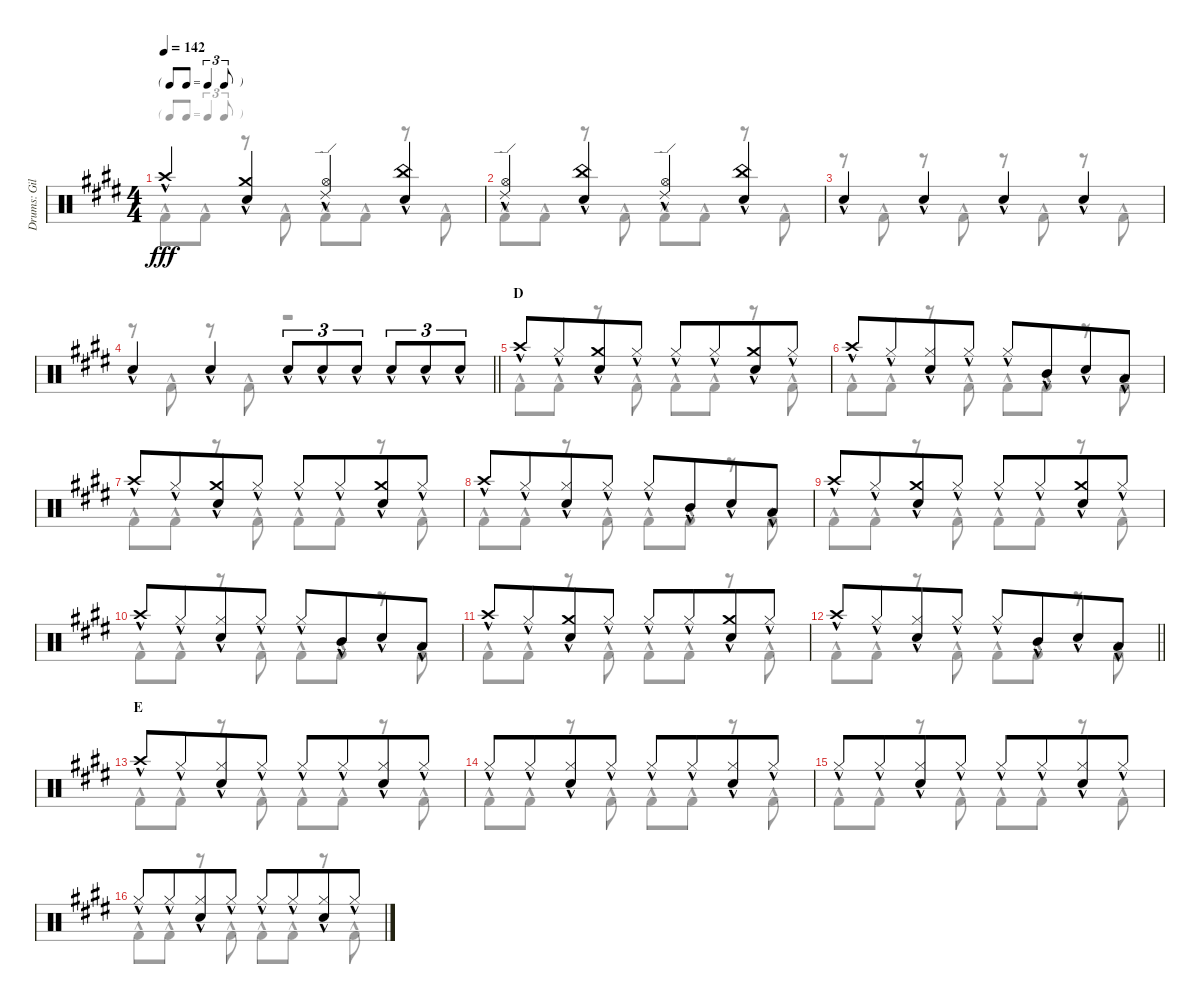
\track ("Drums: Gil" "Drums: Gil") {instrument percussion}
\staff {score}
\articulation defaults
\voice
\ts (4 4)
\tf triplet8th
\tempo 142
\clef neutral
\ks e "Crash high (hit)"{hac}.4{dy fff}
("Crash medium (hit)"{hac} "Snare (hit) 2"{hac}).4 ("Ride (edge) 2"{hac} "Hi-Hat (open)"{hac}).4 ("China (hit)"{hac} "Snare (hit) 2"{hac}).4 |
("Ride (edge) 2"{hac} "Hi-Hat (open)"{hac}).4 ("China (hit)"{hac} "Snare (hit) 2"{hac}).4 ("Ride (edge) 2"{hac} "Hi-Hat (open)"{hac}).4 ("China (hit)"{hac} "Snare (hit) 2"{hac}).4 |
"Snare (hit) 2"{hac}.4 "Snare (hit) 2"{hac}.4 "Snare (hit) 2"{hac}.4 "Snare (hit) 2"{hac}.4 |
\barLineRight lightlight "Snare (hit) 2"{hac}.4 "Snare (hit) 2"{hac}.4 "Snare (hit) 2"{hac}.8{tu (3 2)} "Snare (hit) 2"{hac}.8{tu (3 2)} "Snare (hit) 2"{hac}.8{tu (3 2)} "Snare (hit) 2"{hac}.8{tu (3 2)} "Snare (hit) 2"{hac}.8{tu (3 2)} "Snare (hit) 2"{hac}.8{tu (3 2)}
|
\section ("" "D")
"Crash high (hit)"{hac}.8 "Hi-Hat (closed)"{hac}.8{beam merge} ("Crash medium (hit)"{hac} "Snare (hit) 2"{hac}).8 "Hi-Hat (closed)"{hac}.8 "Hi-Hat (closed)"{hac}.8 "Hi-Hat (closed)"{hac}.8{beam merge} ("Crash medium (hit)"{hac} "Snare (hit) 2"{hac}).8 "Hi-Hat (closed)"{hac}.8 |
"Crash high (hit)"{hac}.8 "Hi-Hat (closed)"{hac}.8{beam merge} ("Hi-Hat (closed)"{hac} "Snare (hit) 2"{hac}).8 "Hi-Hat (closed)"{hac}.8 "Hi-Hat (closed)"{hac}.8 "Mid Tom (hit)"{hac}.8{beam merge} "Snare (hit) 2"{hac}.8 "Low Tom (hit)"{hac}.8 |
"Crash high (hit)"{hac}.8 "Hi-Hat (closed)"{hac}.8{beam merge} ("Crash medium (hit)"{hac} "Snare (hit) 2"{hac}).8 "Hi-Hat (closed)"{hac}.8 "Hi-Hat (closed)"{hac}.8 "Hi-Hat (closed)"{hac}.8{beam merge} ("Crash medium (hit)"{hac} "Snare (hit) 2"{hac}).8 "Hi-Hat (closed)"{hac}.8 |
"Crash high (hit)"{hac}.8 "Hi-Hat (closed)"{hac}.8{beam merge} ("Hi-Hat (closed)"{hac} "Snare (hit) 2"{hac}).8 "Hi-Hat (closed)"{hac}.8 "Hi-Hat (closed)"{hac}.8 "Mid Tom (hit)"{hac}.8{beam merge} "Snare (hit) 2"{hac}.8 "Low Tom (hit)"{hac}.8 |
"Crash high (hit)"{hac}.8 "Hi-Hat (closed)"{hac}.8{beam merge} ("Crash medium (hit)"{hac} "Snare (hit) 2"{hac}).8 "Hi-Hat (closed)"{hac}.8 "Hi-Hat (closed)"{hac}.8 "Hi-Hat (closed)"{hac}.8{beam merge} ("Crash medium (hit)"{hac} "Snare (hit) 2"{hac}).8 "Hi-Hat (closed)"{hac}.8 |
"Crash high (hit)"{hac}.8 "Hi-Hat (closed)"{hac}.8{beam merge} ("Hi-Hat (closed)"{hac} "Snare (hit) 2"{hac}).8 "Hi-Hat (closed)"{hac}.8 "Hi-Hat (closed)"{hac}.8 "Mid Tom (hit)"{hac}.8{beam merge} "Snare (hit) 2"{hac}.8 "Low Tom (hit)"{hac}.8 |
"Crash high (hit)"{hac}.8 "Hi-Hat (closed)"{hac}.8{beam merge} ("Crash medium (hit)"{hac} "Snare (hit) 2"{hac}).8 "Hi-Hat (closed)"{hac}.8 "Hi-Hat (closed)"{hac}.8 "Hi-Hat (closed)"{hac}.8{beam merge} ("Crash medium (hit)"{hac} "Snare (hit) 2"{hac}).8 "Hi-Hat (closed)"{hac}.8 |
\barLineRight lightlight "Crash high (hit)"{hac}.8 "Hi-Hat (closed)"{hac}.8{beam merge}
("Hi-Hat (closed)"{hac} "Snare (hit) 2"{hac}).8 "Hi-Hat (closed)"{hac}.8 "Hi-Hat (closed)"{hac}.8 "Mid Tom (hit)"{hac}.8{beam merge} "Snare (hit) 2"{hac}.8 "Low Tom (hit)"{hac}.8 |
\section ("" "E")
"Crash high (hit)"{hac}.8 "Hi-Hat (closed)"{hac}.8{beam merge} ("Hi-Hat (closed)"{hac} "Snare (hit) 2"{hac}).8 "Hi-Hat (closed)"{hac}.8 "Hi-Hat (closed)"{hac}.8 "Hi-Hat (closed)"{hac}.8{beam merge} ("Hi-Hat (closed)"{hac} "Snare (hit) 2"{hac}).8 "Hi-Hat (closed)"{hac}.8 |
"Hi-Hat (closed)"{hac}.8 "Hi-Hat (closed)"{hac}.8{beam merge} ("Hi-Hat (closed)"{hac} "Snare (hit) 2"{hac}).8 "Hi-Hat (closed)"{hac}.8 "Hi-Hat (closed)"{hac}.8 "Hi-Hat (closed)"{hac}.8{beam merge} ("Hi-Hat (closed)"{hac} "Snare (hit) 2"{hac}).8 "Hi-Hat (closed)"{hac}.8 |
"Hi-Hat (closed)"{hac}.8 "Hi-Hat (closed)"{hac}.8{beam merge} ("Hi-Hat (closed)"{hac} "Snare (hit) 2"{hac}).8 "Hi-Hat (closed)"{hac}.8 "Hi-Hat (closed)"{hac}.8 "Hi-Hat (closed)"{hac}.8{beam merge} ("Hi-Hat (closed)"{hac} "Snare (hit) 2"{hac}).8 "Hi-Hat (closed)"{hac}.8 |
"Hi-Hat (closed)"{hac}.8 "Hi-Hat (closed)"{hac}.8{beam merge} ("Hi-Hat (closed)"{hac} "Snare (hit) 2"{hac}).8 "Hi-Hat (closed)"{hac}.8 "Hi-Hat (closed)"{hac}.8 "Hi-Hat (closed)"{hac}.8{beam merge} ("Hi-Hat (closed)"{hac} "Snare (hit) 2"{hac}).8 "Hi-Hat (closed)"{hac}.8
\voice
\clef neutral
\ottava regular
\simile none
\ks e "Kick (hit) 2"{hac}.8{dy fff} "Kick (hit) 2"{hac}.8
r.8 "Kick (hit) 2"{hac}.8 "Kick (hit) 2"{hac}.8 "Kick (hit) 2"{hac}.8 r.8 "Kick (hit) 2"{hac}.8 |
"Kick (hit) 2"{hac}.8 "Kick (hit) 2"{hac}.8 r.8 "Kick (hit) 2"{hac}.8 "Kick (hit) 2"{hac}.8 "Kick (hit) 2"{hac}.8 r.8 "Kick (hit) 2"{hac}.8 |
r.8 "Kick (hit) 2"{hac}.8 r.8 "Kick (hit) 2"{hac}.8 r.8 "Kick (hit) 2"{hac}.8 r.8 "Kick (hit) 2"{hac}.8 |
\barLineRight lightlight
r.8 "Kick (hit) 2"{hac}.8 r.8 "Kick (hit) 2"{hac}.8 r.2 |
"Kick (hit) 2"{hac}.8 "Kick (hit) 2"{hac}.8 r.8 "Kick (hit) 2"{hac}.8 "Kick (hit) 2"{hac}.8 "Kick (hit) 2"{hac}.8 r.8 "Kick (hit) 2"{hac}.8 |
"Kick (hit) 2"{hac}.8 "Kick (hit) 2"{hac}.8 r.8 "Kick (hit) 2"{hac}.8 "Kick (hit) 2"{hac}.8 "Kick (hit) 2"{hac}.8 r.8 "Kick (hit) 2"{hac}.8 |
"Kick (hit) 2"{hac}.8 "Kick (hit) 2"{hac}.8 r.8 "Kick (hit) 2"{hac}.8 "Kick (hit) 2"{hac}.8 "Kick (hit) 2"{hac}.8 r.8 "Kick (hit) 2"{hac}.8 |
"Kick (hit) 2"{hac}.8 "Kick (hit) 2"{hac}.8 r.8 "Kick (hit) 2"{hac}.8 "Kick (hit) 2"{hac}.8 "Kick (hit) 2"{hac}.8 r.8 "Kick (hit) 2"{hac}.8 |
"Kick (hit) 2"{hac}.8 "Kick (hit) 2"{hac}.8 r.8 "Kick (hit) 2"{hac}.8 "Kick (hit) 2"{hac}.8 "Kick (hit) 2"{hac}.8 r.8 "Kick (hit) 2"{hac}.8 |
"Kick (hit) 2"{hac}.8 "Kick (hit) 2"{hac}.8 r.8 "Kick (hit) 2"{hac}.8 "Kick (hit) 2"{hac}.8 "Kick (hit) 2"{hac}.8 r.8 "Kick (hit) 2"{hac}.8 |
"Kick (hit) 2"{hac}.8 "Kick (hit) 2"{hac}.8 r.8 "Kick (hit) 2"{hac}.8 "Kick (hit) 2"{hac}.8 "Kick (hit) 2"{hac}.8 r.8 "Kick (hit) 2"{hac}.8 |
\barLineRight lightlight "Kick (hit) 2"{hac}.8 "Kick (hit) 2"{hac}.8
r.8 "Kick (hit) 2"{hac}.8 "Kick (hit) 2"{hac}.8 "Kick (hit) 2"{hac}.8 r.8 "Kick (hit) 2"{hac}.8 |
"Kick (hit) 2"{hac}.8 "Kick (hit) 2"{hac}.8 r.8 "Kick (hit) 2"{hac}.8 "Kick (hit) 2"{hac}.8 "Kick (hit) 2"{hac}.8 r.8 "Kick (hit) 2"{hac}.8 |
"Kick (hit) 2"{hac}.8 "Kick (hit) 2"{hac}.8 r.8 "Kick (hit) 2"{hac}.8 "Kick (hit) 2"{hac}.8 "Kick (hit) 2"{hac}.8 r.8 "Kick (hit) 2"{hac}.8 |
"Kick (hit) 2"{hac}.8 "Kick (hit) 2"{hac}.8 r.8 "Kick (hit) 2"{hac}.8 "Kick (hit) 2"{hac}.8 "Kick (hit) 2"{hac}.8 r.8 "Kick (hit) 2"{hac}.8 |
"Kick (hit) 2"{hac}.8 "Kick (hit) 2"{hac}.8 r.8 "Kick (hit) 2"{hac}.8 "Kick (hit) 2"{hac}.8 "Kick (hit) 2"{hac}.8 r.8 "Kick (hit) 2"{hac}.8
